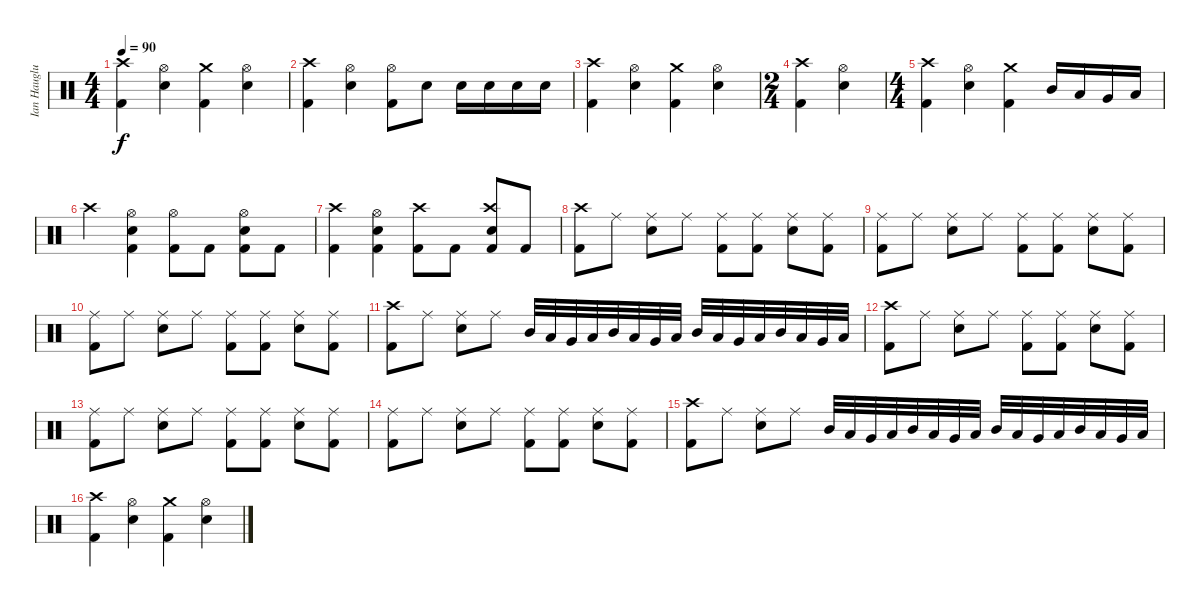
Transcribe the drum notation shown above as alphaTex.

\track ("Ian Hauglund" "Ian Hauglu") {instrument percussion}
\staff {score}
\articulation defaults
\ts (4 4)
\tempo 90
\clef neutral
\ks c
("Kick (hit) 2" "Crash high (hit)").4{dy f} ("Electric Snare (hit)" "Hi-Hat (open)").4 ("Kick (hit) 2" "Crash medium (hit)").4 ("Electric Snare (hit)" "Hi-Hat (open)").4 |
("Kick (hit) 2" "Crash high (hit)").4 ("Electric Snare (hit)" "Hi-Hat (open)").4 ("Kick (hit) 2" "Hi-Hat (open)").8 "Electric Snare (hit)".8 "Electric Snare (hit)".16 "Electric Snare (hit)".16 "Electric Snare (hit)".16 "Electric Snare (hit)".16 |
("Kick (hit) 2" "Crash high (hit)").4 ("Electric Snare (hit)" "Hi-Hat (open)").4 ("Kick (hit) 2" "Crash medium (hit)").4 ("Electric Snare (hit)" "Hi-Hat (open)").4 |
\ts (2 4)
("Kick (hit) 2" "Crash high (hit)").4 ("Electric Snare (hit)" "Hi-Hat (open)").4 |
\ts (4 4)
("Kick (hit) 2" "Crash high (hit)").4 ("Electric Snare (hit)" "Hi-Hat (open)").4 ("Kick (hit) 2" "Crash medium (hit)").4 "Mid Tom (hit)".16 "Low Tom (hit)".16 "Very Low Tom (hit)".16 "Low Floor Tom (hit)".16 |
"Crash high (hit)".4 ("Kick (hit) 2" "Electric Snare (hit)" "Hi-Hat (open)").4 ("Kick (hit) 2" "Hi-Hat (open)").8 "Kick (hit) 2".8 ("Kick (hit) 2" "Hi-Hat (open)" "Electric Snare (hit)").8 "Kick (hit) 2".8 |
("Kick (hit) 2" "Crash high (hit)").4 ("Kick (hit) 2" "Electric Snare (hit)" "Hi-Hat (open)").4 ("Kick (hit) 2" "Crash high (hit)").8 "Kick (hit) 2".8 ("Kick (hit) 2" "Electric Snare (hit)" "Crash high (hit)").8 "Kick (hit) 2".8 |
("Kick (hit) 2" "Crash high (hit)").8 "Ride (middle)".8 ("Electric Snare (hit)" "Ride (middle)").8 "Ride (middle)".8 ("Kick (hit) 2" "Ride (middle)").8 ("Kick (hit) 2" "Ride (middle)").8 ("Electric Snare (hit)" "Ride (middle)").8 ("Kick (hit) 2" "Ride (middle)").8 |
("Kick (hit) 2" "Ride (middle)").8 "Ride (middle)".8 ("Electric Snare (hit)" "Ride (middle)").8 "Ride (middle)".8 ("Kick (hit) 2" "Ride (middle)").8 ("Kick (hit) 2" "Ride (middle)").8 ("Electric Snare (hit)" "Ride (middle)").8 ("Kick (hit) 2" "Ride (middle)").8 |
("Kick (hit) 2" "Ride (middle)").8 "Ride (middle)".8 ("Electric Snare (hit)" "Ride (middle)").8 "Ride (middle)".8 ("Kick (hit) 2" "Ride (middle)").8 ("Kick (hit) 2" "Ride (middle)").8 ("Electric Snare (hit)" "Ride (middle)").8 ("Kick (hit) 2" "Ride (middle)").8 |
("Kick (hit) 2" "Crash high (hit)").8 "Ride (middle)".8 ("Electric Snare (hit)" "Ride (middle)").8 "Ride (middle)".8 "Mid Tom (hit)".32 "Low Tom (hit)".32 "Very Low Tom (hit)".32 "Low Floor Tom (hit)".32 "Mid Tom (hit)".32 "Low Tom (hit)".32 "Very Low Tom (hit)".32 "Low Floor Tom (hit)".32 "Mid Tom (hit)".32 "Low Tom (hit)".32 "Very Low Tom (hit)".32 "Low Floor Tom (hit)".32 "Mid Tom (hit)".32 "Low Tom (hit)".32 "Very Low Tom (hit)".32 "Low Floor Tom (hit)".32 |
("Kick (hit) 2" "Crash high (hit)").8 "Ride (middle)".8 ("Electric Snare (hit)" "Ride (middle)").8 "Ride (middle)".8 ("Kick (hit) 2" "Ride (middle)").8 ("Kick (hit) 2" "Ride (middle)").8 ("Electric Snare (hit)" "Ride (middle)").8 ("Kick (hit) 2" "Ride (middle)").8 |
("Kick (hit) 2" "Ride (middle)").8 "Ride (middle)".8 ("Electric Snare (hit)" "Ride (middle)").8 "Ride (middle)".8 ("Kick (hit) 2" "Ride (middle)").8 ("Kick (hit) 2" "Ride (middle)").8 ("Electric Snare (hit)" "Ride (middle)").8 ("Kick (hit) 2" "Ride (middle)").8 |
("Kick (hit) 2" "Ride (middle)").8 "Ride (middle)".8 ("Electric Snare (hit)" "Ride (middle)").8 "Ride (middle)".8 ("Kick (hit) 2" "Ride (middle)").8 ("Kick (hit) 2" "Ride (middle)").8 ("Electric Snare (hit)" "Ride (middle)").8 ("Kick (hit) 2" "Ride (middle)").8 |
("Kick (hit) 2" "Crash high (hit)").8 "Ride (middle)".8 ("Electric Snare (hit)" "Ride (middle)").8 "Ride (middle)".8 "Mid Tom (hit)".32 "Low Tom (hit)".32 "Very Low Tom (hit)".32 "Low Floor Tom (hit)".32 "Mid Tom (hit)".32 "Low Tom (hit)".32 "Very Low Tom (hit)".32 "Low Floor Tom (hit)".32 "Mid Tom (hit)".32 "Low Tom (hit)".32 "Very Low Tom (hit)".32 "Low Floor Tom (hit)".32 "Mid Tom (hit)".32 "Low Tom (hit)".32 "Very Low Tom (hit)".32 "Low Floor Tom (hit)".32 |
("Kick (hit) 2" "Crash high (hit)").4 ("Electric Snare (hit)" "Hi-Hat (open)").4 ("Kick (hit) 2" "Crash medium (hit)").4 ("Electric Snare (hit)" "Hi-Hat (open)").4
